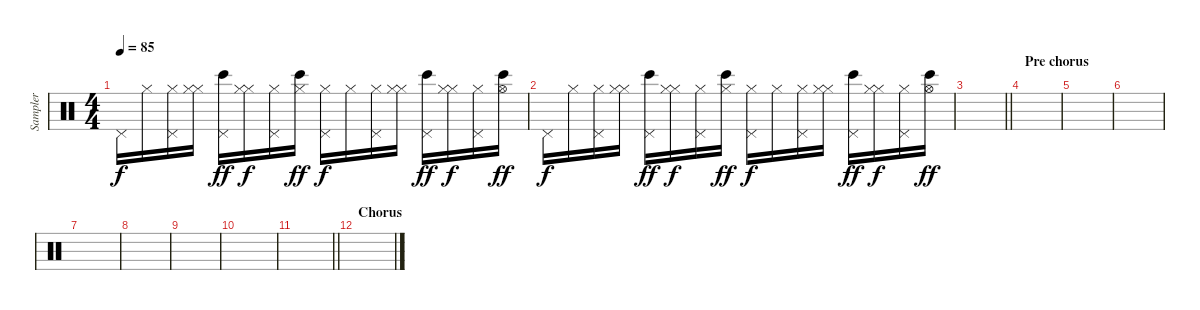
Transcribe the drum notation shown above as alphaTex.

\track ("Sampler" "Sampler") {instrument percussion}
\staff {score}
\articulation defaults
\ts (4 4)
\tempo 85
\clef neutral
\ks c "Pedal Hi-Hat (hit)".16{dy f} "Hi-Hat (closed)".16
("Pedal Hi-Hat (hit)" "Hi-Hat (closed)").16 ("Hi-Hat (closed)" "Hi-Hat (closed)").16 ("Pedal Hi-Hat (hit)" "Bongo High (hit)").16{dy ff} ("Hi-Hat (closed)" "Hi-Hat (closed)").16{dy f} ("Pedal Hi-Hat (hit)" "Hi-Hat (closed)").16 ("Hi-Hat (closed)" "Bongo High (hit)").16{dy ff} ("Pedal Hi-Hat (hit)" "Hi-Hat (closed)").16{dy f} "Hi-Hat (closed)".16 ("Pedal Hi-Hat (hit)" "Hi-Hat (closed)").16 ("Hi-Hat (closed)" "Hi-Hat (closed)").16 ("Pedal Hi-Hat (hit)" "Bongo High (hit)").16{dy ff} ("Hi-Hat (closed)" "Hi-Hat (closed)").16{dy f} ("Pedal Hi-Hat (hit)" "Hi-Hat (closed)").16 ("Hi-Hat (open)" "Bongo High (hit)").16{dy ff} |
"Pedal Hi-Hat (hit)".16{dy f} "Hi-Hat (closed)".16 ("Pedal Hi-Hat (hit)" "Hi-Hat (closed)").16 ("Hi-Hat (closed)" "Hi-Hat (closed)").16 ("Pedal Hi-Hat (hit)" "Bongo High (hit)").16{dy ff} ("Hi-Hat (closed)" "Hi-Hat (closed)").16{dy f} ("Pedal Hi-Hat (hit)" "Hi-Hat (closed)").16 ("Hi-Hat (closed)" "Bongo High (hit)").16{dy ff} ("Pedal Hi-Hat (hit)" "Hi-Hat (closed)").16{dy f} "Hi-Hat (closed)".16 ("Pedal Hi-Hat (hit)" "Hi-Hat (closed)").16 ("Hi-Hat (closed)" "Hi-Hat (closed)").16 ("Pedal Hi-Hat (hit)" "Bongo High (hit)").16{dy ff} ("Hi-Hat (closed)" "Hi-Hat (closed)").16{dy f} ("Pedal Hi-Hat (hit)" "Hi-Hat (closed)").16 ("Hi-Hat (open)" "Bongo High (hit)").16{dy ff} |
\barLineRight lightlight
|
\section ("" "Pre chorus")
|
|
|
|
|
|
|
\barLineRight lightlight
|
\section ("" "Chorus")
